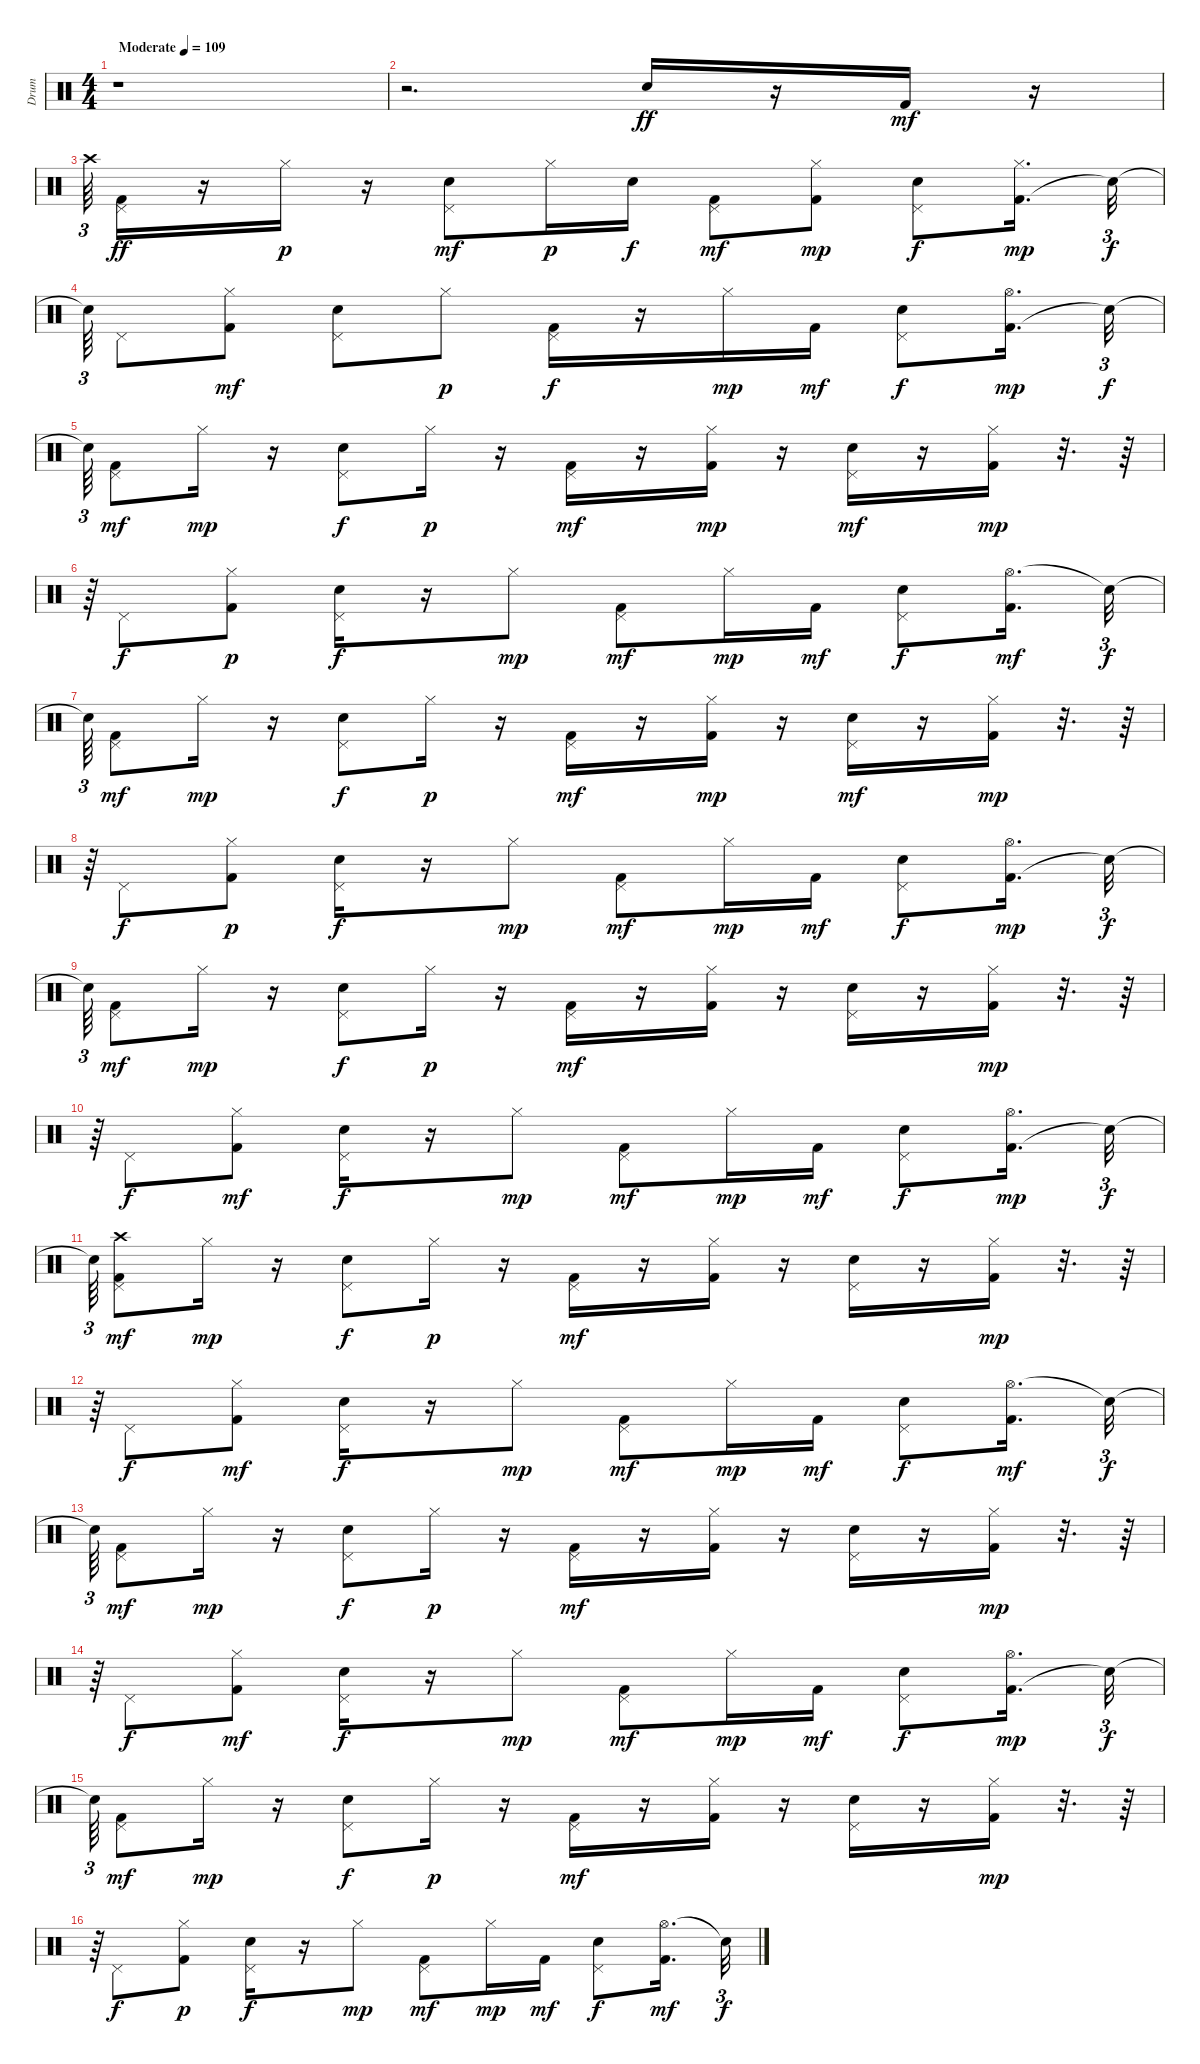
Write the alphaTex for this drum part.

\track ("Drum" "Drum") {instrument percussion}
\staff {score}
\articulation defaults
\ts (4 4)
\tempo (109 "Moderate")
\clef neutral
\ks c
r.1{dy ff} |
r.2{d} "Electric Snare (hit)".16 r.16 "Kick (hit) 2".16{dy mf} r.16 |
"Crash high (hit)".64{tu (3 2)} ("Pedal Hi-Hat (hit)" "Kick (hit) 2").16{dy ff} r.16 "Hi-Hat (closed)".16{dy p} r.16 ("Pedal Hi-Hat (hit)" "Electric Snare (hit)").8{dy mf} "Hi-Hat (closed)".16{dy p} "Electric Snare (hit)".16{dy f} ("Kick (hit) 2" "Pedal Hi-Hat (hit)").8{dy mf} ("Hi-Hat (closed)" "Kick (hit) 2").8{dy mp} ("Electric Snare (hit)" "Pedal Hi-Hat (hit)").8{dy f} ("Kick (hit) 2" "Hi-Hat (closed)").16{d dy mp} "Snare (hit)"{t}.32{tu (3 2) dy f} |
"Snare (hit)"{t}.64{tu (3 2)} "Pedal Hi-Hat (hit)".8 ("Hi-Hat (closed)" "Kick (hit) 2").8{dy mf} ("Electric Snare (hit)" "Pedal Hi-Hat (hit)").8 "Hi-Hat (closed)".8{dy p} ("Pedal Hi-Hat (hit)" "Kick (hit) 2").16{dy f} r.16 "Hi-Hat (closed)".16{dy mp} "Kick (hit) 2".16{dy mf} ("Electric Snare (hit)" "Pedal Hi-Hat (hit)").8{dy f} ("Kick (hit) 2" "Hi-Hat (open)").16{d dy mp} "Snare (hit)"{t}.32{tu (3 2) dy f} |
"Snare (hit)"{t}.64{tu (3 2)} ("Kick (hit) 2" "Pedal Hi-Hat (hit)").8{dy mf} "Hi-Hat (closed)".16{dy mp} r.16 ("Pedal Hi-Hat (hit)" "Electric Snare (hit)").8{dy f} "Hi-Hat (closed)".16{dy p} r.16 ("Kick (hit) 2" "Pedal Hi-Hat (hit)").16{dy mf} r.16 ("Kick (hit) 2" "Hi-Hat (closed)").16{dy mp} r.16 ("Electric Snare (hit)" "Pedal Hi-Hat (hit)").16{dy mf} r.16 ("Hi-Hat (closed)" "Kick (hit) 2").16{dy mp} r.32{d} r.64 |
r.64{tu (3 2)} "Pedal Hi-Hat (hit)".8{dy f} ("Kick (hit) 2" "Hi-Hat (closed)").8{dy p} ("Pedal Hi-Hat (hit)" "Electric Snare (hit)").16{dy f} r.16 "Hi-Hat (closed)".8{dy mp} ("Pedal Hi-Hat (hit)" "Kick (hit) 2").8{dy mf} "Hi-Hat (closed)".16{dy mp} "Kick (hit) 2".16{dy mf} ("Pedal Hi-Hat (hit)" "Electric Snare (hit)").8{dy f} ("Hi-Hat (open)" "Kick (hit) 2").16{d dy mf} "Snare (hit)"{t}.32{tu (3 2) dy f} |
"Snare (hit)"{t}.64{tu (3 2)} ("Pedal Hi-Hat (hit)" "Kick (hit) 2").8{dy mf} "Hi-Hat (closed)".16{dy mp} r.16 ("Pedal Hi-Hat (hit)" "Electric Snare (hit)").8{dy f} "Hi-Hat (closed)".16{dy p} r.16 ("Pedal Hi-Hat (hit)" "Kick (hit) 2").16{dy mf} r.16 ("Kick (hit) 2" "Hi-Hat (closed)").16{dy mp} r.16 ("Electric Snare (hit)" "Pedal Hi-Hat (hit)").16{dy mf} r.16 ("Kick (hit) 2" "Hi-Hat (closed)").16{dy mp} r.32{d} r.64 |
r.64{tu (3 2)} "Pedal Hi-Hat (hit)".8{dy f} ("Kick (hit) 2" "Hi-Hat (closed)").8{dy p} ("Electric Snare (hit)" "Pedal Hi-Hat (hit)").16{dy f} r.16 "Hi-Hat (closed)".8{dy mp} ("Kick (hit) 2" "Pedal Hi-Hat (hit)").8{dy mf} "Hi-Hat (closed)".16{dy mp} "Kick (hit) 2".16{dy mf} ("Pedal Hi-Hat (hit)" "Electric Snare (hit)").8{dy f} ("Kick (hit) 2" "Hi-Hat (open)").16{d dy mp} "Snare (hit)"{t}.32{tu (3 2) dy f} |
"Snare (hit)"{t}.64{tu (3 2)} ("Pedal Hi-Hat (hit)" "Kick (hit) 2").8{dy mf} "Hi-Hat (closed)".16{dy mp} r.16 ("Pedal Hi-Hat (hit)" "Electric Snare (hit)").8{dy f} "Hi-Hat (closed)".16{dy p} r.16 ("Kick (hit) 2" "Pedal Hi-Hat (hit)").16{dy mf} r.16 ("Hi-Hat (closed)" "Kick (hit) 2").16 r.16 ("Electric Snare (hit)" "Pedal Hi-Hat (hit)").16 r.16 ("Kick (hit) 2" "Hi-Hat (closed)").16{dy mp} r.32{d} r.64 |
r.64{tu (3 2)} "Pedal Hi-Hat (hit)".8{dy f} ("Hi-Hat (closed)" "Kick (hit) 2").8{dy mf} ("Pedal Hi-Hat (hit)" "Electric Snare (hit)").16{dy f} r.16 "Hi-Hat (closed)".8{dy mp} ("Pedal Hi-Hat (hit)" "Kick (hit) 2").8{dy mf} "Hi-Hat (closed)".16{dy mp} "Kick (hit) 2".16{dy mf} ("Pedal Hi-Hat (hit)" "Electric Snare (hit)").8{dy f} ("Kick (hit) 2" "Hi-Hat (open)").16{d dy mp} "Snare (hit)"{t}.32{tu (3 2) dy f} |
"Snare (hit)"{t}.64{tu (3 2)} ("Pedal Hi-Hat (hit)" "Kick (hit) 2" "Crash high (hit)").8{dy mf} "Hi-Hat (closed)".16{dy mp} r.16 ("Pedal Hi-Hat (hit)" "Electric Snare (hit)").8{dy f} "Hi-Hat (closed)".16{dy p} r.16 ("Pedal Hi-Hat (hit)" "Kick (hit) 2").16{dy mf} r.16 ("Hi-Hat (closed)" "Kick (hit) 2").16 r.16 ("Electric Snare (hit)" "Pedal Hi-Hat (hit)").16 r.16 ("Hi-Hat (closed)" "Kick (hit) 2").16{dy mp} r.32{d} r.64 |
r.64{tu (3 2)} "Pedal Hi-Hat (hit)".8{dy f} ("Hi-Hat (closed)" "Kick (hit) 2").8{dy mf} ("Pedal Hi-Hat (hit)" "Electric Snare (hit)").16{dy f} r.16 "Hi-Hat (closed)".8{dy mp} ("Pedal Hi-Hat (hit)" "Kick (hit) 2").8{dy mf} "Hi-Hat (closed)".16{dy mp} "Kick (hit) 2".16{dy mf} ("Electric Snare (hit)" "Pedal Hi-Hat (hit)").8{dy f} ("Hi-Hat (open)" "Kick (hit) 2").16{d dy mf} "Snare (hit)"{t}.32{tu (3 2) dy f} |
"Snare (hit)"{t}.64{tu (3 2)} ("Kick (hit) 2" "Pedal Hi-Hat (hit)").8{dy mf} "Hi-Hat (closed)".16{dy mp} r.16 ("Electric Snare (hit)" "Pedal Hi-Hat (hit)").8{dy f} "Hi-Hat (closed)".16{dy p} r.16 ("Kick (hit) 2" "Pedal Hi-Hat (hit)").16{dy mf} r.16 ("Hi-Hat (closed)" "Kick (hit) 2").16 r.16 ("Electric Snare (hit)" "Pedal Hi-Hat (hit)").16 r.16 ("Kick (hit) 2" "Hi-Hat (closed)").16{dy mp} r.32{d} r.64 |
r.64{tu (3 2)} "Pedal Hi-Hat (hit)".8{dy f} ("Hi-Hat (closed)" "Kick (hit) 2").8{dy mf} ("Pedal Hi-Hat (hit)" "Electric Snare (hit)").16{dy f} r.16 "Hi-Hat (closed)".8{dy mp} ("Pedal Hi-Hat (hit)" "Kick (hit) 2").8{dy mf} "Hi-Hat (closed)".16{dy mp} "Kick (hit) 2".16{dy mf} ("Pedal Hi-Hat (hit)" "Electric Snare (hit)").8{dy f} ("Kick (hit) 2" "Hi-Hat (open)").16{d dy mp} "Snare (hit)"{t}.32{tu (3 2) dy f} |
"Snare (hit)"{t}.64{tu (3 2)} ("Kick (hit) 2" "Pedal Hi-Hat (hit)").8{dy mf} "Hi-Hat (closed)".16{dy mp} r.16 ("Pedal Hi-Hat (hit)" "Electric Snare (hit)").8{dy f} "Hi-Hat (closed)".16{dy p} r.16 ("Pedal Hi-Hat (hit)" "Kick (hit) 2").16{dy mf} r.16 ("Hi-Hat (closed)" "Kick (hit) 2").16 r.16 ("Pedal Hi-Hat (hit)" "Electric Snare (hit)").16 r.16 ("Kick (hit) 2" "Hi-Hat (closed)").16{dy mp} r.32{d} r.64 |
r.64{tu (3 2)} "Pedal Hi-Hat (hit)".8{dy f} ("Kick (hit) 2" "Hi-Hat (closed)").8{dy p} ("Pedal Hi-Hat (hit)" "Electric Snare (hit)").16{dy f} r.16 "Hi-Hat (closed)".8{dy mp} ("Kick (hit) 2" "Pedal Hi-Hat (hit)").8{dy mf} "Hi-Hat (closed)".16{dy mp} "Kick (hit) 2".16{dy mf} ("Pedal Hi-Hat (hit)" "Electric Snare (hit)").8{dy f} ("Hi-Hat (open)" "Kick (hit) 2").16{d dy mf} "Snare (hit)"{t}.32{tu (3 2) dy f}
